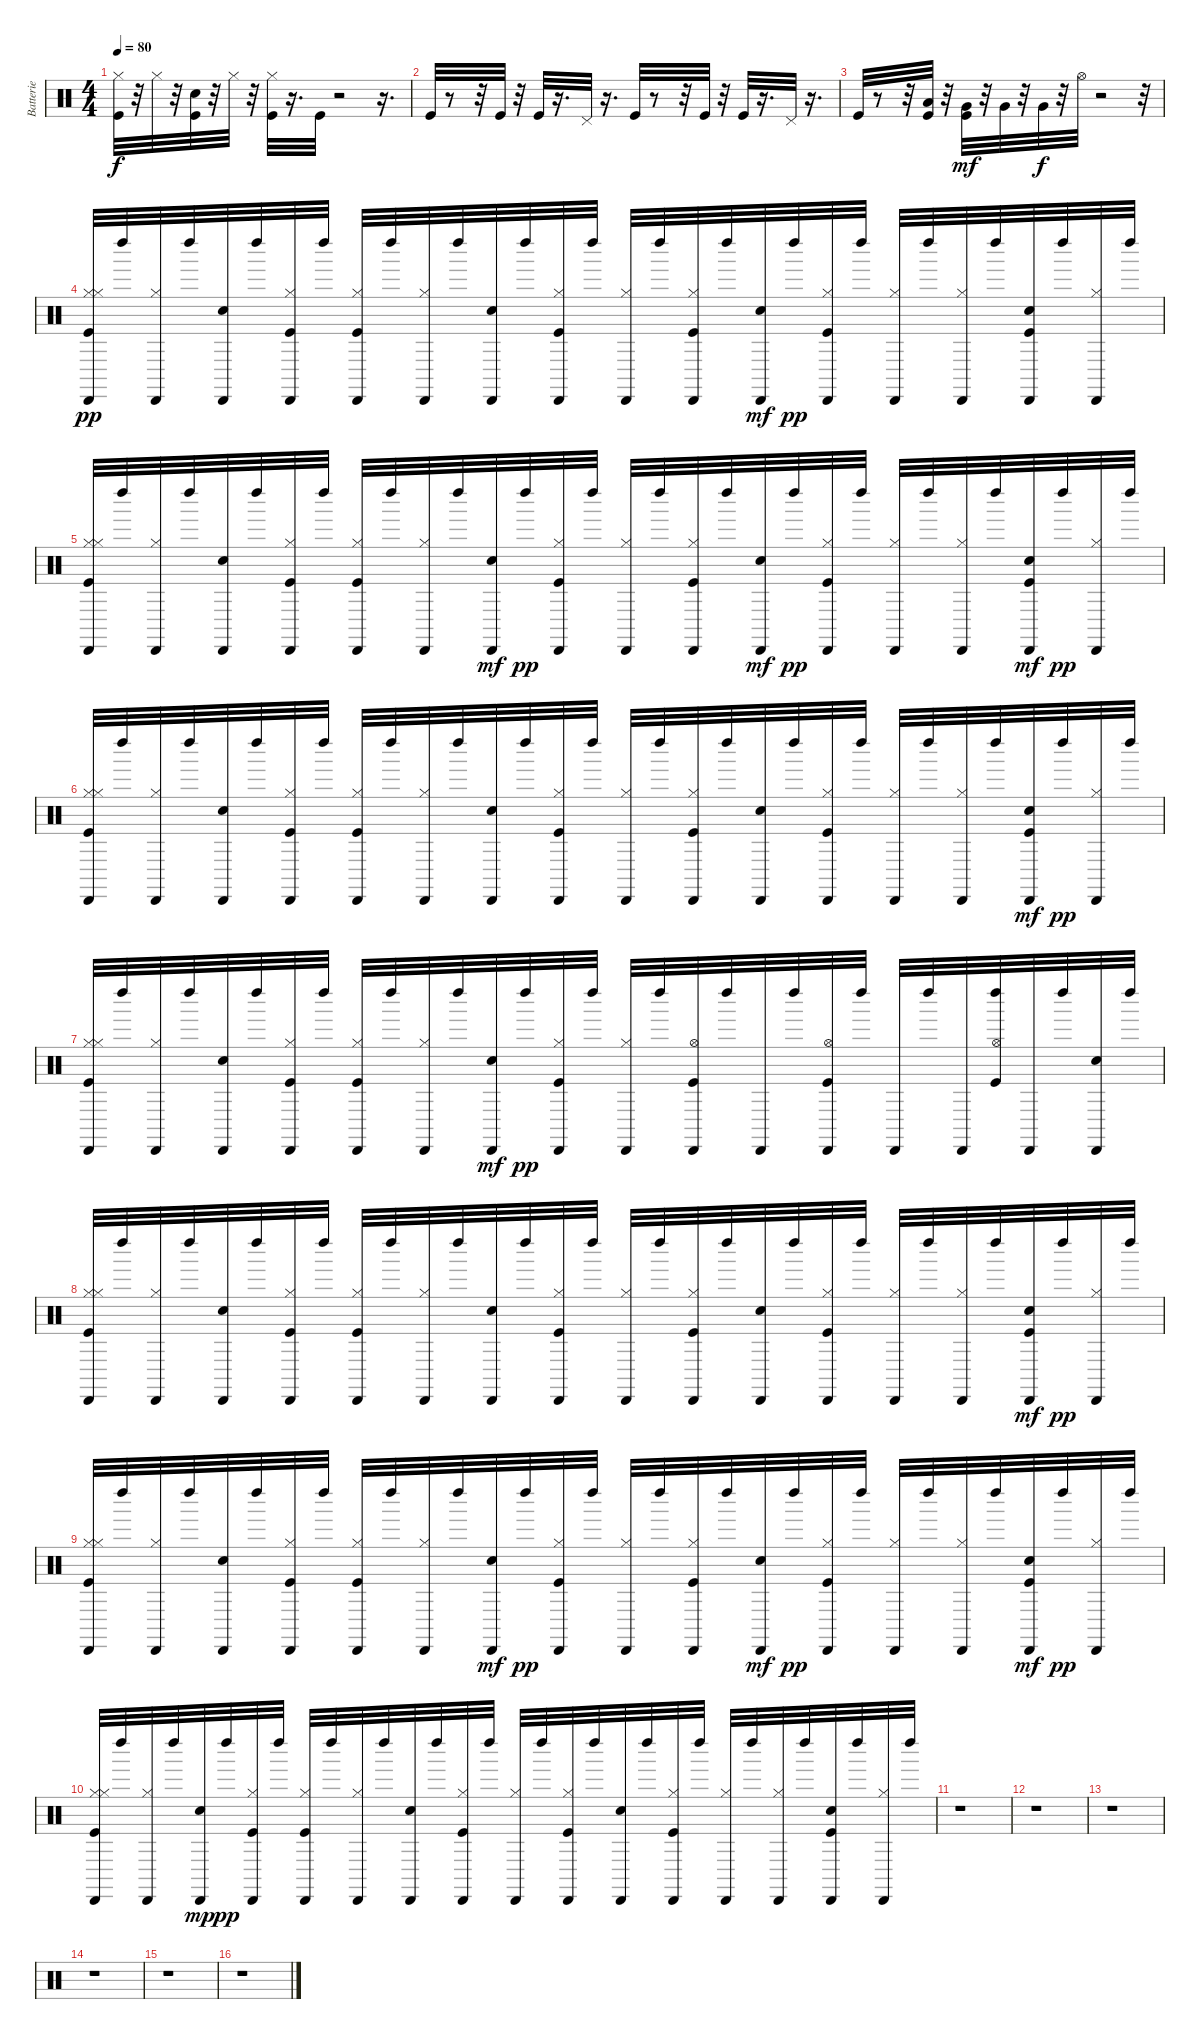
\track ("Batterie" "Batterie") {instrument percussion}
\staff {score}
\articulation defaults
\ts (4 4)
\tempo 80
\clef neutral
\ks c
("Hi-Hat (closed)" "Kick (hit)").32{dy f} r.32 "Hi-Hat (closed)".32 r.32 ("Electric Snare (hit)" "Kick (hit)").32 r.32 "Hi-Hat (closed)".32 r.32 ("Kick (hit)" "Hi-Hat (closed)").32 r.16{d} "Kick (hit)".32 r.2 r.16{d} |
"Kick (hit)".32 r.8 r.32 "Kick (hit)".32 r.32 "Kick (hit)".32 r.16{d} "Pedal Hi-Hat (hit)".32 r.16{d} "Kick (hit)".32 r.8 r.32 "Kick (hit)".32 r.32 "Kick (hit)".32 r.16{d} "Pedal Hi-Hat (hit)".32 r.16{d} |
"Kick (hit)".32 r.8 r.32 ("Low Tom (hit)" "Kick (hit)").32 r.32 ("Very Low Tom (hit)" "Kick (hit)").32{dy mf} r.32 "Very Low Tom (hit)".32 r.32 "Very Low Tom (hit)".32{dy f} r.32 "Hi-Hat (open)".32 r.2 r.32 |
("Hi-Hat (closed)" "Cabasa (hit)" "Hi-Hat (closed)" "Kick (hit)").32{dy pp} "Left Maraca (hit)".32 ("Hi-Hat (closed)" "Cabasa (hit)").32 "Left Maraca (hit)".32 ("Electric Snare (hit)" "Cabasa (hit)").32 "Left Maraca (hit)".32 ("Kick (hit)" "Hi-Hat (closed)" "Cabasa (hit)").32 "Left Maraca (hit)".32 ("Kick (hit)" "Hi-Hat (closed)" "Cabasa (hit)").32 "Left Maraca (hit)".32 ("Cabasa (hit)" "Hi-Hat (closed)").32 "Left Maraca (hit)".32 ("Electric Snare (hit)" "Cabasa (hit)").32 "Left Maraca (hit)".32 ("Kick (hit)" "Hi-Hat (closed)" "Cabasa (hit)").32 "Left Maraca (hit)".32 ("Cabasa (hit)" "Hi-Hat (closed)").32 "Left Maraca (hit)".32 ("Hi-Hat (closed)" "Cabasa (hit)" "Kick (hit)").32 "Left Maraca (hit)".32 ("Cabasa (hit)" "Electric Snare (hit)").32{dy mf} "Left Maraca (hit)".32{dy pp} ("Hi-Hat (closed)" "Cabasa (hit)" "Kick (hit)").32 "Left Maraca (hit)".32 ("Cabasa (hit)" "Hi-Hat (closed)").32 "Left Maraca (hit)".32 ("Hi-Hat (closed)" "Cabasa (hit)").32 "Left Maraca (hit)".32 ("Kick (hit)" "Electric Snare (hit)" "Cabasa (hit)").32 "Left Maraca (hit)".32 ("Hi-Hat (closed)" "Cabasa (hit)").32 "Left Maraca (hit)".32 |
("Cabasa (hit)" "Hi-Hat (closed)" "Hi-Hat (closed)" "Kick (hit)").32 "Left Maraca (hit)".32 ("Cabasa (hit)" "Hi-Hat (closed)").32 "Left Maraca (hit)".32 ("Electric Snare (hit)" "Cabasa (hit)").32 "Left Maraca (hit)".32 ("Cabasa (hit)" "Kick (hit)" "Hi-Hat (closed)").32 "Left Maraca (hit)".32 ("Hi-Hat (closed)" "Kick (hit)" "Cabasa (hit)").32 "Left Maraca (hit)".32 ("Cabasa (hit)" "Hi-Hat (closed)").32 "Left Maraca (hit)".32 ("Cabasa (hit)" "Electric Snare (hit)").32{dy mf} "Left Maraca (hit)".32{dy pp} ("Cabasa (hit)" "Hi-Hat (closed)" "Kick (hit)").32 "Left Maraca (hit)".32 ("Hi-Hat (closed)" "Cabasa (hit)").32 "Left Maraca (hit)".32 ("Hi-Hat (closed)" "Cabasa (hit)" "Kick (hit)").32 "Left Maraca (hit)".32 ("Cabasa (hit)" "Electric Snare (hit)").32{dy mf} "Left Maraca (hit)".32{dy pp} ("Hi-Hat (closed)" "Cabasa (hit)" "Kick (hit)").32 "Left Maraca (hit)".32 ("Hi-Hat (closed)" "Cabasa (hit)").32 "Left Maraca (hit)".32 ("Cabasa (hit)" "Hi-Hat (closed)").32 "Left Maraca (hit)".32 ("Kick (hit)" "Cabasa (hit)" "Electric Snare (hit)").32{dy mf} "Left Maraca (hit)".32{dy pp} ("Hi-Hat (closed)" "Cabasa (hit)").32 "Left Maraca (hit)".32 |
("Hi-Hat (closed)" "Hi-Hat (closed)" "Cabasa (hit)" "Kick (hit)").32 "Left Maraca (hit)".32 ("Cabasa (hit)" "Hi-Hat (closed)").32 "Left Maraca (hit)".32 ("Electric Snare (hit)" "Cabasa (hit)").32 "Left Maraca (hit)".32 ("Kick (hit)" "Hi-Hat (closed)" "Cabasa (hit)").32 "Left Maraca (hit)".32 ("Kick (hit)" "Hi-Hat (closed)" "Cabasa (hit)").32 "Left Maraca (hit)".32 ("Hi-Hat (closed)" "Cabasa (hit)").32 "Left Maraca (hit)".32 ("Electric Snare (hit)" "Cabasa (hit)").32 "Left Maraca (hit)".32 ("Kick (hit)" "Hi-Hat (closed)" "Cabasa (hit)").32 "Left Maraca (hit)".32 ("Hi-Hat (closed)" "Cabasa (hit)").32 "Left Maraca (hit)".32 ("Kick (hit)" "Cabasa (hit)" "Hi-Hat (closed)").32 "Left Maraca (hit)".32 ("Electric Snare (hit)" "Cabasa (hit)").32 "Left Maraca (hit)".32 ("Hi-Hat (closed)" "Kick (hit)" "Cabasa (hit)").32 "Left Maraca (hit)".32 ("Hi-Hat (closed)" "Cabasa (hit)").32 "Left Maraca (hit)".32 ("Hi-Hat (closed)" "Cabasa (hit)").32 "Left Maraca (hit)".32 ("Cabasa (hit)" "Kick (hit)" "Electric Snare (hit)").32{dy mf} "Left Maraca (hit)".32{dy pp} ("Cabasa (hit)" "Hi-Hat (closed)").32 "Left Maraca (hit)".32 |
("Cabasa (hit)" "Hi-Hat (closed)" "Kick (hit)" "Hi-Hat (closed)").32 "Left Maraca (hit)".32 ("Hi-Hat (closed)" "Cabasa (hit)").32 "Left Maraca (hit)".32 ("Electric Snare (hit)" "Cabasa (hit)").32 "Left Maraca (hit)".32 ("Hi-Hat (closed)" "Kick (hit)" "Cabasa (hit)").32 "Left Maraca (hit)".32 ("Cabasa (hit)" "Kick (hit)" "Hi-Hat (closed)").32 "Left Maraca (hit)".32 ("Cabasa (hit)" "Hi-Hat (closed)").32 "Left Maraca (hit)".32 ("Cabasa (hit)" "Electric Snare (hit)").32{dy mf} "Left Maraca (hit)".32{dy pp} ("Cabasa (hit)" "Kick (hit)" "Hi-Hat (closed)").32 "Left Maraca (hit)".32 ("Cabasa (hit)" "Hi-Hat (closed)").32 "Left Maraca (hit)".32 ("Kick (hit)" "Hi-Hat (open)" "Cabasa (hit)").32 "Left Maraca (hit)".32 "Cabasa (hit)".32 "Left Maraca (hit)".32 ("Hi-Hat (open)" "Kick (hit)" "Cabasa (hit)").32 "Left Maraca (hit)".32 "Cabasa (hit)".32 "Left Maraca (hit)".32 "Cabasa (hit)".32 ("Left Maraca (hit)" "Kick (hit)" "Hi-Hat (open)").32 "Cabasa (hit)".32 "Left Maraca (hit)".32 ("Cabasa (hit)" "Electric Snare (hit)").32 "Left Maraca (hit)".32 |
("Hi-Hat (closed)" "Cabasa (hit)" "Kick (hit)" "Hi-Hat (closed)").32 "Left Maraca (hit)".32 ("Cabasa (hit)" "Hi-Hat (closed)").32 "Left Maraca (hit)".32 ("Electric Snare (hit)" "Cabasa (hit)").32 "Left Maraca (hit)".32 ("Kick (hit)" "Cabasa (hit)" "Hi-Hat (closed)").32 "Left Maraca (hit)".32 ("Kick (hit)" "Hi-Hat (closed)" "Cabasa (hit)").32 "Left Maraca (hit)".32 ("Hi-Hat (closed)" "Cabasa (hit)").32 "Left Maraca (hit)".32 ("Electric Snare (hit)" "Cabasa (hit)").32 "Left Maraca (hit)".32 ("Cabasa (hit)" "Hi-Hat (closed)" "Kick (hit)").32 "Left Maraca (hit)".32 ("Cabasa (hit)" "Hi-Hat (closed)").32 "Left Maraca (hit)".32 ("Hi-Hat (closed)" "Kick (hit)" "Cabasa (hit)").32 "Left Maraca (hit)".32 ("Electric Snare (hit)" "Cabasa (hit)").32 "Left Maraca (hit)".32 ("Cabasa (hit)" "Hi-Hat (closed)" "Kick (hit)").32 "Left Maraca (hit)".32 ("Hi-Hat (closed)" "Cabasa (hit)").32 "Left Maraca (hit)".32 ("Cabasa (hit)" "Hi-Hat (closed)").32 "Left Maraca (hit)".32 ("Cabasa (hit)" "Kick (hit)" "Electric Snare (hit)").32{dy mf} "Left Maraca (hit)".32{dy pp} ("Cabasa (hit)" "Hi-Hat (closed)").32 "Left Maraca (hit)".32 |
("Kick (hit)" "Hi-Hat (closed)" "Hi-Hat (closed)" "Cabasa (hit)").32 "Left Maraca (hit)".32 ("Hi-Hat (closed)" "Cabasa (hit)").32 "Left Maraca (hit)".32 ("Electric Snare (hit)" "Cabasa (hit)").32 "Left Maraca (hit)".32 ("Kick (hit)" "Cabasa (hit)" "Hi-Hat (closed)").32 "Left Maraca (hit)".32 ("Cabasa (hit)" "Hi-Hat (closed)" "Kick (hit)").32 "Left Maraca (hit)".32 ("Hi-Hat (closed)" "Cabasa (hit)").32 "Left Maraca (hit)".32 ("Cabasa (hit)" "Electric Snare (hit)").32{dy mf} "Left Maraca (hit)".32{dy pp} ("Hi-Hat (closed)" "Cabasa (hit)" "Kick (hit)").32 "Left Maraca (hit)".32 ("Hi-Hat (closed)" "Cabasa (hit)").32 "Left Maraca (hit)".32 ("Hi-Hat (closed)" "Kick (hit)" "Cabasa (hit)").32 "Left Maraca (hit)".32 ("Cabasa (hit)" "Electric Snare (hit)").32{dy mf} "Left Maraca (hit)".32{dy pp} ("Cabasa (hit)" "Hi-Hat (closed)" "Kick (hit)").32 "Left Maraca (hit)".32 ("Hi-Hat (closed)" "Cabasa (hit)").32 "Left Maraca (hit)".32 ("Hi-Hat (closed)" "Cabasa (hit)").32 "Left Maraca (hit)".32 ("Cabasa (hit)" "Kick (hit)" "Electric Snare (hit)").32{dy mf} "Left Maraca (hit)".32{dy pp} ("Hi-Hat (closed)" "Cabasa (hit)").32 "Left Maraca (hit)".32 |
("Hi-Hat (closed)" "Cabasa (hit)" "Hi-Hat (closed)" "Kick (hit)").32 "Left Maraca (hit)".32 ("Hi-Hat (closed)" "Cabasa (hit)").32 "Left Maraca (hit)".32 ("Cabasa (hit)" "Electric Snare (hit)").32{dy mp} "Left Maraca (hit)".32{dy pp} ("Kick (hit)" "Cabasa (hit)" "Hi-Hat (closed)").32 "Left Maraca (hit)".32 ("Hi-Hat (closed)" "Kick (hit)" "Cabasa (hit)").32 "Left Maraca (hit)".32 ("Hi-Hat (closed)" "Cabasa (hit)").32 "Left Maraca (hit)".32 ("Electric Snare (hit)" "Cabasa (hit)").32 "Left Maraca (hit)".32 ("Kick (hit)" "Hi-Hat (closed)" "Cabasa (hit)").32 "Left Maraca (hit)".32 ("Cabasa (hit)" "Hi-Hat (closed)").32 "Left Maraca (hit)".32 ("Kick (hit)" "Hi-Hat (closed)" "Cabasa (hit)").32 "Left Maraca (hit)".32 ("Electric Snare (hit)" "Cabasa (hit)").32 "Left Maraca (hit)".32 ("Kick (hit)" "Cabasa (hit)" "Hi-Hat (closed)").32 "Left Maraca (hit)".32 ("Hi-Hat (closed)" "Cabasa (hit)").32 "Left Maraca (hit)".32 ("Cabasa (hit)" "Hi-Hat (closed)").32 "Left Maraca (hit)".32 ("Electric Snare (hit)" "Kick (hit)" "Cabasa (hit)").32 "Left Maraca (hit)".32 ("Cabasa (hit)" "Hi-Hat (closed)").32 "Left Maraca (hit)".32 |
r.1 |
r.1 |
r.1 |
r.1 |
r.1 |
r.1
